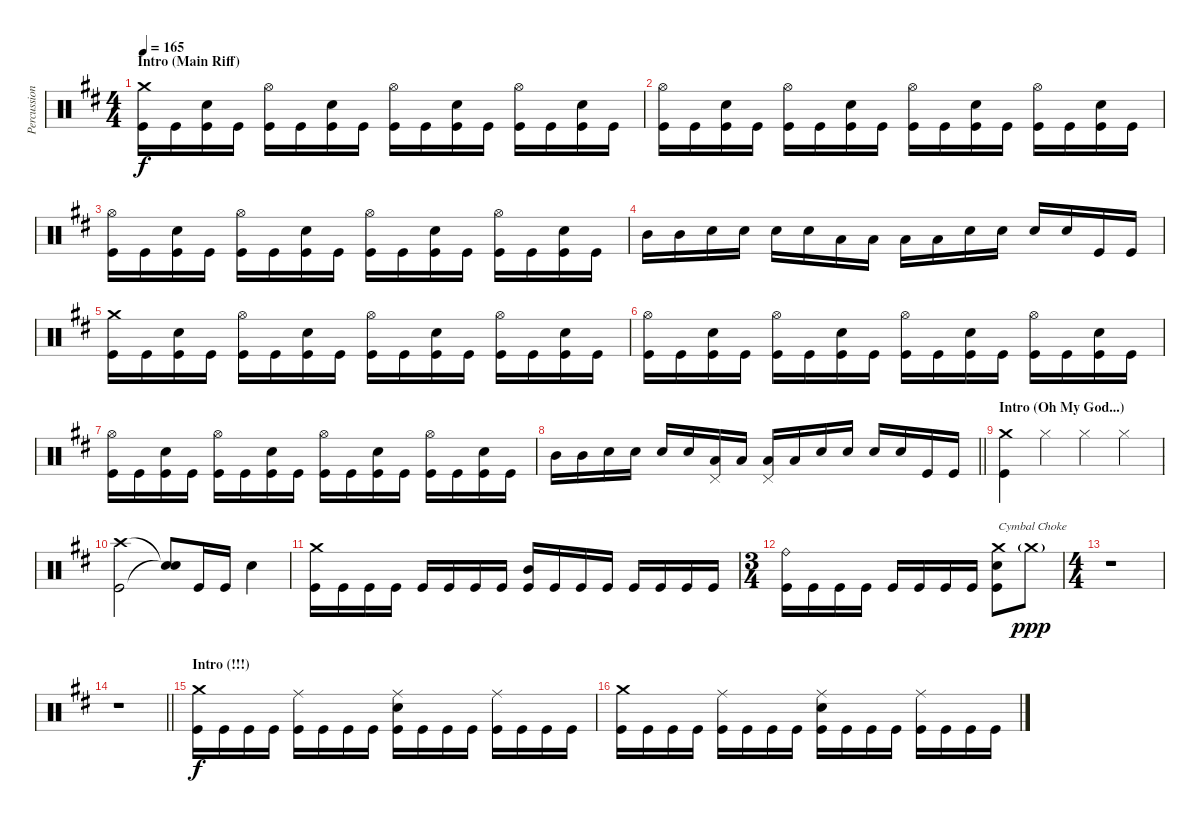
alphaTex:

\track ("Percussion" "Percussion") {instrument percussion}
\staff {score}
\articulation defaults
\ts (4 4)
\section ("" "Intro (Main Riff)")
\tempo 165
\clef neutral
\ks d
("Crash medium (hit)" "Kick (hit)").16{dy f} "Kick (hit)".16 ("Electric Snare (hit)" "Kick (hit)").16 "Kick (hit)".16 ("Hi-Hat (open)" "Kick (hit)").16 "Kick (hit)".16 ("Electric Snare (hit)" "Kick (hit)").16 "Kick (hit)".16 ("Hi-Hat (open)" "Kick (hit)").16 "Kick (hit)".16 ("Electric Snare (hit)" "Kick (hit)").16 "Kick (hit)".16 ("Hi-Hat (open)" "Kick (hit)").16 "Kick (hit)".16 ("Electric Snare (hit)" "Kick (hit)").16 "Kick (hit)".16 |
("Hi-Hat (open)" "Kick (hit)").16 "Kick (hit)".16 ("Electric Snare (hit)" "Kick (hit)").16 "Kick (hit)".16 ("Hi-Hat (open)" "Kick (hit)").16 "Kick (hit)".16 ("Electric Snare (hit)" "Kick (hit)").16 "Kick (hit)".16 ("Hi-Hat (open)" "Kick (hit)").16 "Kick (hit)".16 ("Electric Snare (hit)" "Kick (hit)").16 "Kick (hit)".16 ("Hi-Hat (open)" "Kick (hit)").16 "Kick (hit)".16 ("Electric Snare (hit)" "Kick (hit)").16 "Kick (hit)".16 |
("Hi-Hat (open)" "Kick (hit)").16 "Kick (hit)".16 ("Electric Snare (hit)" "Kick (hit)").16 "Kick (hit)".16 ("Hi-Hat (open)" "Kick (hit)").16 "Kick (hit)".16 ("Electric Snare (hit)" "Kick (hit)").16 "Kick (hit)".16 ("Hi-Hat (open)" "Kick (hit)").16 "Kick (hit)".16 ("Electric Snare (hit)" "Kick (hit)").16 "Kick (hit)".16 ("Hi-Hat (open)" "Kick (hit)").16 "Kick (hit)".16 ("Electric Snare (hit)" "Kick (hit)").16 "Kick (hit)".16 |
"Mid Tom (hit)".16 "Mid Tom (hit)".16 "Electric Snare (hit)".16 "Electric Snare (hit)".16 "Electric Snare (hit)".16 "Electric Snare (hit)".16 "Low Tom (hit)".16 "Low Tom (hit)".16 "Low Tom (hit)".16 "Low Tom (hit)".16 "Electric Snare (hit)".16 "Electric Snare (hit)".16 "Electric Snare (hit)".16 "Electric Snare (hit)".16 "Kick (hit)".16 "Kick (hit)".16 |
("Crash medium (hit)" "Kick (hit)").16 "Kick (hit)".16 ("Electric Snare (hit)" "Kick (hit)").16 "Kick (hit)".16 ("Hi-Hat (open)" "Kick (hit)").16 "Kick (hit)".16 ("Electric Snare (hit)" "Kick (hit)").16 "Kick (hit)".16 ("Hi-Hat (open)" "Kick (hit)").16 "Kick (hit)".16 ("Electric Snare (hit)" "Kick (hit)").16 "Kick (hit)".16 ("Hi-Hat (open)" "Kick (hit)").16 "Kick (hit)".16 ("Electric Snare (hit)" "Kick (hit)").16 "Kick (hit)".16 |
("Hi-Hat (open)" "Kick (hit)").16 "Kick (hit)".16 ("Electric Snare (hit)" "Kick (hit)").16 "Kick (hit)".16 ("Hi-Hat (open)" "Kick (hit)").16 "Kick (hit)".16 ("Electric Snare (hit)" "Kick (hit)").16 "Kick (hit)".16 ("Hi-Hat (open)" "Kick (hit)").16 "Kick (hit)".16 ("Electric Snare (hit)" "Kick (hit)").16 "Kick (hit)".16 ("Hi-Hat (open)" "Kick (hit)").16 "Kick (hit)".16 ("Electric Snare (hit)" "Kick (hit)").16 "Kick (hit)".16 |
("Hi-Hat (open)" "Kick (hit)").16 "Kick (hit)".16 ("Electric Snare (hit)" "Kick (hit)").16 "Kick (hit)".16 ("Hi-Hat (open)" "Kick (hit)").16 "Kick (hit)".16 ("Electric Snare (hit)" "Kick (hit)").16 "Kick (hit)".16 ("Hi-Hat (open)" "Kick (hit)").16 "Kick (hit)".16 ("Electric Snare (hit)" "Kick (hit)").16 "Kick (hit)".16 ("Hi-Hat (open)" "Kick (hit)").16 "Kick (hit)".16 ("Electric Snare (hit)" "Kick (hit)").16 "Kick (hit)".16 |
\barLineRight lightlight "Mid Tom (hit)".16 "Mid Tom (hit)".16 "Electric Snare (hit)".16 "Electric Snare (hit)".16 "Electric Snare (hit)".16 "Electric Snare (hit)".16
("Pedal Hi-Hat (hit)" "Low Tom (hit)").16 "Low Tom (hit)".16 ("Pedal Hi-Hat (hit)" "Low Tom (hit)").16 "Low Tom (hit)".16 "Electric Snare (hit)".16 "Electric Snare (hit)".16 "Electric Snare (hit)".16 "Electric Snare (hit)".16 "Kick (hit)".16 "Kick (hit)".16 |
\section ("" "Intro (Oh My God...)")
("Crash medium (hit)" "Kick (hit)").4 "Hi-Hat (closed)".4 "Hi-Hat (closed)".4 "Hi-Hat (closed)".4 |
("Crash high (hit)" "Kick (hit)").2 ("Snare (hit)"{t} "Snare (hit)"{t}).8 "Kick (hit)".16 "Kick (hit)".16 "Electric Snare (hit)".4 |
("Crash medium (hit)" "Kick (hit)").16 "Kick (hit)".16 "Kick (hit)".16 "Kick (hit)".16 "Kick (hit)".16 "Kick (hit)".16 "Kick (hit)".16 "Kick (hit)".16 ("Mid Tom (hit)" "Kick (hit)").16 "Kick (hit)".16 "Kick (hit)".16 "Kick (hit)".16 "Kick (hit)".16 "Kick (hit)".16 "Kick (hit)".16 "Kick (hit)".16 |
\ts (3 4)
("Ride (bell)" "Kick (hit)").16 "Kick (hit)".16 "Kick (hit)".16 "Kick (hit)".16 "Kick (hit)".16 "Kick (hit)".16 "Kick (hit)".16 "Kick (hit)".16 ("Crash medium (hit)" "Electric Snare (hit)" "Kick (hit)").8{txt "Cymbal Choke"} "Crash medium (hit)"{g}.8{dy ppp volume 0} |
\ts (4 4)
r.1 |
\barLineRight lightlight
r.1 |
\section ("" "Intro (!!!)")
("Crash medium (hit)" "Kick (hit)").16{dy f volume 13} "Kick (hit)".16 "Kick (hit)".16 "Kick (hit)".16 ("Ride (middle)" "Kick (hit)").16 "Kick (hit)".16 "Kick (hit)".16 "Kick (hit)".16 ("Ride (middle)" "Electric Snare (hit)" "Kick (hit)").16 "Kick (hit)".16 "Kick (hit)".16 "Kick (hit)".16 ("Ride (middle)" "Kick (hit)").16 "Kick (hit)".16 "Kick (hit)".16 "Kick (hit)".16 |
("Crash medium (hit)" "Kick (hit)").16 "Kick (hit)".16 "Kick (hit)".16 "Kick (hit)".16 ("Ride (middle)" "Kick (hit)").16 "Kick (hit)".16 "Kick (hit)".16 "Kick (hit)".16 ("Ride (middle)" "Electric Snare (hit)" "Kick (hit)").16 "Kick (hit)".16 "Kick (hit)".16 "Kick (hit)".16 ("Ride (middle)" "Kick (hit)").16 "Kick (hit)".16 "Kick (hit)".16 "Kick (hit)".16
